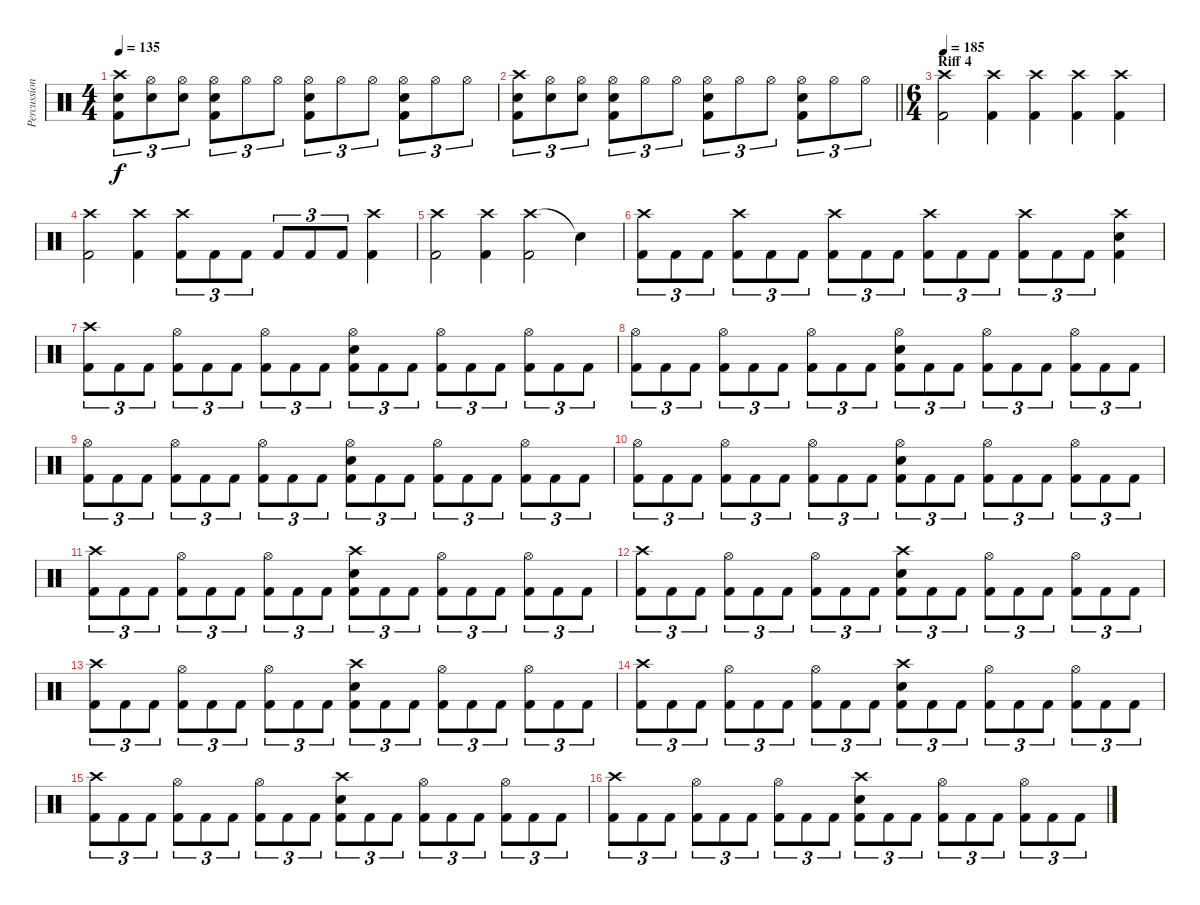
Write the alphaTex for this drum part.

\track ("Percussion" "Percussion") {instrument percussion}
\staff {score}
\articulation defaults
\ts (4 4)
\tempo 135
\clef neutral
\ks c
("Crash high (hit)" "Snare (hit) 2" "Kick (hit) 2").8{tu (3 2) dy f} ("Hi-Hat (open)" "Snare (hit) 2").8{tu (3 2)} ("Hi-Hat (open)" "Snare (hit) 2").8{tu (3 2)} ("Hi-Hat (open)" "Snare (hit) 2" "Kick (hit) 2").8{tu (3 2)} "Hi-Hat (open)".8{tu (3 2)} "Hi-Hat (open)".8{tu (3 2)} ("Hi-Hat (open)" "Snare (hit) 2" "Kick (hit) 2").8{tu (3 2)} "Hi-Hat (open)".8{tu (3 2)} "Hi-Hat (open)".8{tu (3 2)} ("Hi-Hat (open)" "Snare (hit) 2" "Kick (hit) 2").8{tu (3 2)} "Hi-Hat (open)".8{tu (3 2)} "Hi-Hat (open)".8{tu (3 2)} |
\barLineRight lightlight
("Crash high (hit)" "Snare (hit) 2" "Kick (hit) 2").8{tu (3 2)} ("Hi-Hat (open)" "Snare (hit) 2").8{tu (3 2)} ("Hi-Hat (open)" "Snare (hit) 2").8{tu (3 2)} ("Hi-Hat (open)" "Snare (hit) 2" "Kick (hit) 2").8{tu (3 2)} "Hi-Hat (open)".8{tu (3 2)} "Hi-Hat (open)".8{tu (3 2)} ("Hi-Hat (open)" "Snare (hit) 2" "Kick (hit) 2").8{tu (3 2)} "Hi-Hat (open)".8{tu (3 2)} "Hi-Hat (open)".8{tu (3 2)} ("Hi-Hat (open)" "Snare (hit) 2" "Kick (hit) 2").8{tu (3 2)} "Hi-Hat (open)".8{tu (3 2)} "Hi-Hat (open)".8{tu (3 2)} |
\ts (6 4)
\section ("" "Riff 4")
\tempo 185
("Crash high (hit)" "Kick (hit) 2").2 ("Crash high (hit)" "Kick (hit) 2").4 ("Crash high (hit)" "Kick (hit) 2").4 ("Crash high (hit)" "Kick (hit) 2").4 ("Crash high (hit)" "Kick (hit) 2").4 |
("Crash high (hit)" "Kick (hit) 2").2 ("Crash high (hit)" "Kick (hit) 2").4 ("Crash high (hit)" "Kick (hit) 2").8{tu (3 2)} "Kick (hit) 2".8{tu (3 2)} "Kick (hit) 2".8{tu (3 2)} "Kick (hit) 2".8{tu (3 2)} "Kick (hit) 2".8{tu (3 2)} "Kick (hit) 2".8{tu (3 2)} ("Crash high (hit)" "Kick (hit) 2").4 |
("Crash high (hit)" "Kick (hit) 2").2 ("Crash high (hit)" "Kick (hit) 2").4 ("Crash high (hit)" "Kick (hit) 2").2 "Snare (hit)"{t}.4 |
("Crash high (hit)" "Kick (hit) 2").8{tu (3 2)} "Kick (hit) 2".8{tu (3 2)} "Kick (hit) 2".8{tu (3 2)} ("Crash high (hit)" "Kick (hit) 2").8{tu (3 2)} "Kick (hit) 2".8{tu (3 2)} "Kick (hit) 2".8{tu (3 2)} ("Crash high (hit)" "Kick (hit) 2").8{tu (3 2)} "Kick (hit) 2".8{tu (3 2)} "Kick (hit) 2".8{tu (3 2)} ("Crash high (hit)" "Kick (hit) 2").8{tu (3 2)} "Kick (hit) 2".8{tu (3 2)} "Kick (hit) 2".8{tu (3 2)} ("Crash high (hit)" "Kick (hit) 2").8{tu (3 2)} "Kick (hit) 2".8{tu (3 2)} "Kick (hit) 2".8{tu (3 2)} ("Crash high (hit)" "Snare (hit) 2" "Kick (hit) 2").4 |
("Crash high (hit)" "Kick (hit) 2").8{tu (3 2)} "Kick (hit) 2".8{tu (3 2)} "Kick (hit) 2".8{tu (3 2)} ("Hi-Hat (open)" "Kick (hit) 2").8{tu (3 2)} "Kick (hit) 2".8{tu (3 2)} "Kick (hit) 2".8{tu (3 2)} ("Hi-Hat (open)" "Kick (hit) 2").8{tu (3 2)} "Kick (hit) 2".8{tu (3 2)} "Kick (hit) 2".8{tu (3 2)} ("Hi-Hat (open)" "Snare (hit) 2" "Kick (hit) 2").8{tu (3 2)} "Kick (hit) 2".8{tu (3 2)} "Kick (hit) 2".8{tu (3 2)} ("Hi-Hat (open)" "Kick (hit) 2").8{tu (3 2)} "Kick (hit) 2".8{tu (3 2)} "Kick (hit) 2".8{tu (3 2)} ("Hi-Hat (open)" "Kick (hit) 2").8{tu (3 2)} "Kick (hit) 2".8{tu (3 2)} "Kick (hit) 2".8{tu (3 2)} |
("Hi-Hat (open)" "Kick (hit) 2").8{tu (3 2)} "Kick (hit) 2".8{tu (3 2)} "Kick (hit) 2".8{tu (3 2)} ("Hi-Hat (open)" "Kick (hit) 2").8{tu (3 2)} "Kick (hit) 2".8{tu (3 2)} "Kick (hit) 2".8{tu (3 2)} ("Hi-Hat (open)" "Kick (hit) 2").8{tu (3 2)} "Kick (hit) 2".8{tu (3 2)} "Kick (hit) 2".8{tu (3 2)} ("Hi-Hat (open)" "Snare (hit) 2" "Kick (hit) 2").8{tu (3 2)} "Kick (hit) 2".8{tu (3 2)} "Kick (hit) 2".8{tu (3 2)} ("Hi-Hat (open)" "Kick (hit) 2").8{tu (3 2)} "Kick (hit) 2".8{tu (3 2)} "Kick (hit) 2".8{tu (3 2)} ("Hi-Hat (open)" "Kick (hit) 2").8{tu (3 2)} "Kick (hit) 2".8{tu (3 2)} "Kick (hit) 2".8{tu (3 2)} |
("Hi-Hat (open)" "Kick (hit) 2").8{tu (3 2)} "Kick (hit) 2".8{tu (3 2)} "Kick (hit) 2".8{tu (3 2)} ("Hi-Hat (open)" "Kick (hit) 2").8{tu (3 2)} "Kick (hit) 2".8{tu (3 2)} "Kick (hit) 2".8{tu (3 2)} ("Hi-Hat (open)" "Kick (hit) 2").8{tu (3 2)} "Kick (hit) 2".8{tu (3 2)} "Kick (hit) 2".8{tu (3 2)} ("Hi-Hat (open)" "Snare (hit) 2" "Kick (hit) 2").8{tu (3 2)} "Kick (hit) 2".8{tu (3 2)} "Kick (hit) 2".8{tu (3 2)} ("Hi-Hat (open)" "Kick (hit) 2").8{tu (3 2)} "Kick (hit) 2".8{tu (3 2)} "Kick (hit) 2".8{tu (3 2)} ("Hi-Hat (open)" "Kick (hit) 2").8{tu (3 2)} "Kick (hit) 2".8{tu (3 2)} "Kick (hit) 2".8{tu (3 2)} |
("Hi-Hat (open)" "Kick (hit) 2").8{tu (3 2)} "Kick (hit) 2".8{tu (3 2)} "Kick (hit) 2".8{tu (3 2)} ("Hi-Hat (open)" "Kick (hit) 2").8{tu (3 2)} "Kick (hit) 2".8{tu (3 2)} "Kick (hit) 2".8{tu (3 2)} ("Hi-Hat (open)" "Kick (hit) 2").8{tu (3 2)} "Kick (hit) 2".8{tu (3 2)} "Kick (hit) 2".8{tu (3 2)} ("Hi-Hat (open)" "Snare (hit) 2" "Kick (hit) 2").8{tu (3 2)} "Kick (hit) 2".8{tu (3 2)} "Kick (hit) 2".8{tu (3 2)} ("Hi-Hat (open)" "Kick (hit) 2").8{tu (3 2)} "Kick (hit) 2".8{tu (3 2)} "Kick (hit) 2".8{tu (3 2)} ("Hi-Hat (open)" "Kick (hit) 2").8{tu (3 2)} "Kick (hit) 2".8{tu (3 2)} "Kick (hit) 2".8{tu (3 2)} |
("Crash high (hit)" "Kick (hit) 2").8{tu (3 2)} "Kick (hit) 2".8{tu (3 2)} "Kick (hit) 2".8{tu (3 2)} ("Hi-Hat (open)" "Kick (hit) 2").8{tu (3 2)} "Kick (hit) 2".8{tu (3 2)} "Kick (hit) 2".8{tu (3 2)} ("Hi-Hat (open)" "Kick (hit) 2").8{tu (3 2)} "Kick (hit) 2".8{tu (3 2)} "Kick (hit) 2".8{tu (3 2)} ("Crash high (hit)" "Snare (hit) 2" "Kick (hit) 2").8{tu (3 2)} "Kick (hit) 2".8{tu (3 2)} "Kick (hit) 2".8{tu (3 2)} ("Hi-Hat (open)" "Kick (hit) 2").8{tu (3 2)} "Kick (hit) 2".8{tu (3 2)} "Kick (hit) 2".8{tu (3 2)} ("Hi-Hat (open)" "Kick (hit) 2").8{tu (3 2)} "Kick (hit) 2".8{tu (3 2)} "Kick (hit) 2".8{tu (3 2)} |
("Crash high (hit)" "Kick (hit) 2").8{tu (3 2)} "Kick (hit) 2".8{tu (3 2)} "Kick (hit) 2".8{tu (3 2)} ("Hi-Hat (open)" "Kick (hit) 2").8{tu (3 2)} "Kick (hit) 2".8{tu (3 2)} "Kick (hit) 2".8{tu (3 2)} ("Hi-Hat (open)" "Kick (hit) 2").8{tu (3 2)} "Kick (hit) 2".8{tu (3 2)} "Kick (hit) 2".8{tu (3 2)} ("Crash high (hit)" "Snare (hit) 2" "Kick (hit) 2").8{tu (3 2)} "Kick (hit) 2".8{tu (3 2)} "Kick (hit) 2".8{tu (3 2)} ("Hi-Hat (open)" "Kick (hit) 2").8{tu (3 2)} "Kick (hit) 2".8{tu (3 2)} "Kick (hit) 2".8{tu (3 2)} ("Hi-Hat (open)" "Kick (hit) 2").8{tu (3 2)} "Kick (hit) 2".8{tu (3 2)} "Kick (hit) 2".8{tu (3 2)} |
("Crash high (hit)" "Kick (hit) 2").8{tu (3 2)} "Kick (hit) 2".8{tu (3 2)} "Kick (hit) 2".8{tu (3 2)} ("Hi-Hat (open)" "Kick (hit) 2").8{tu (3 2)} "Kick (hit) 2".8{tu (3 2)} "Kick (hit) 2".8{tu (3 2)} ("Hi-Hat (open)" "Kick (hit) 2").8{tu (3 2)} "Kick (hit) 2".8{tu (3 2)} "Kick (hit) 2".8{tu (3 2)} ("Crash high (hit)" "Snare (hit) 2" "Kick (hit) 2").8{tu (3 2)} "Kick (hit) 2".8{tu (3 2)} "Kick (hit) 2".8{tu (3 2)} ("Hi-Hat (open)" "Kick (hit) 2").8{tu (3 2)} "Kick (hit) 2".8{tu (3 2)} "Kick (hit) 2".8{tu (3 2)} ("Hi-Hat (open)" "Kick (hit) 2").8{tu (3 2)} "Kick (hit) 2".8{tu (3 2)} "Kick (hit) 2".8{tu (3 2)} |
("Crash high (hit)" "Kick (hit) 2").8{tu (3 2)} "Kick (hit) 2".8{tu (3 2)} "Kick (hit) 2".8{tu (3 2)} ("Hi-Hat (open)" "Kick (hit) 2").8{tu (3 2)} "Kick (hit) 2".8{tu (3 2)} "Kick (hit) 2".8{tu (3 2)} ("Hi-Hat (open)" "Kick (hit) 2").8{tu (3 2)} "Kick (hit) 2".8{tu (3 2)} "Kick (hit) 2".8{tu (3 2)} ("Crash high (hit)" "Snare (hit) 2" "Kick (hit) 2").8{tu (3 2)} "Kick (hit) 2".8{tu (3 2)} "Kick (hit) 2".8{tu (3 2)} ("Hi-Hat (open)" "Kick (hit) 2").8{tu (3 2)} "Kick (hit) 2".8{tu (3 2)} "Kick (hit) 2".8{tu (3 2)} ("Hi-Hat (open)" "Kick (hit) 2").8{tu (3 2)} "Kick (hit) 2".8{tu (3 2)} "Kick (hit) 2".8{tu (3 2)} |
("Crash high (hit)" "Kick (hit) 2").8{tu (3 2)} "Kick (hit) 2".8{tu (3 2)} "Kick (hit) 2".8{tu (3 2)} ("Hi-Hat (open)" "Kick (hit) 2").8{tu (3 2)} "Kick (hit) 2".8{tu (3 2)} "Kick (hit) 2".8{tu (3 2)} ("Hi-Hat (open)" "Kick (hit) 2").8{tu (3 2)} "Kick (hit) 2".8{tu (3 2)} "Kick (hit) 2".8{tu (3 2)} ("Crash high (hit)" "Snare (hit) 2" "Kick (hit) 2").8{tu (3 2)} "Kick (hit) 2".8{tu (3 2)} "Kick (hit) 2".8{tu (3 2)} ("Hi-Hat (open)" "Kick (hit) 2").8{tu (3 2)} "Kick (hit) 2".8{tu (3 2)} "Kick (hit) 2".8{tu (3 2)} ("Hi-Hat (open)" "Kick (hit) 2").8{tu (3 2)} "Kick (hit) 2".8{tu (3 2)} "Kick (hit) 2".8{tu (3 2)} |
("Crash high (hit)" "Kick (hit) 2").8{tu (3 2)} "Kick (hit) 2".8{tu (3 2)} "Kick (hit) 2".8{tu (3 2)} ("Hi-Hat (open)" "Kick (hit) 2").8{tu (3 2)} "Kick (hit) 2".8{tu (3 2)} "Kick (hit) 2".8{tu (3 2)} ("Hi-Hat (open)" "Kick (hit) 2").8{tu (3 2)} "Kick (hit) 2".8{tu (3 2)} "Kick (hit) 2".8{tu (3 2)} ("Crash high (hit)" "Snare (hit) 2" "Kick (hit) 2").8{tu (3 2)} "Kick (hit) 2".8{tu (3 2)} "Kick (hit) 2".8{tu (3 2)} ("Hi-Hat (open)" "Kick (hit) 2").8{tu (3 2)} "Kick (hit) 2".8{tu (3 2)} "Kick (hit) 2".8{tu (3 2)} ("Hi-Hat (open)" "Kick (hit) 2").8{tu (3 2)} "Kick (hit) 2".8{tu (3 2)} "Kick (hit) 2".8{tu (3 2)}
